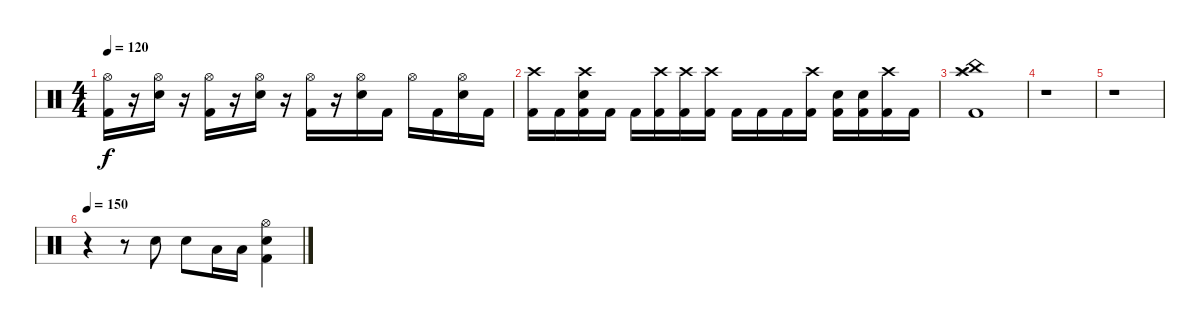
\track "" {instrument percussion}
\staff {score}
\articulation defaults
\ts (4 4)
\tempo 120
\clef neutral
\ks c
("Hi-Hat (open)" "Kick (hit) 2").16{dy f} r.16 ("Hi-Hat (open)" "Electric Snare (hit)").16 r.16 ("Hi-Hat (open)" "Kick (hit) 2").16 r.16 ("Hi-Hat (open)" "Electric Snare (hit)").16 r.16 ("Hi-Hat (open)" "Kick (hit) 2").16 r.16 ("Hi-Hat (open)" "Electric Snare (hit)").16 "Kick (hit) 2".16 "Hi-Hat (open)".16 "Kick (hit) 2".16 ("Hi-Hat (open)" "Electric Snare (hit)").16 "Kick (hit) 2".16 |
("Crash high (hit)" "Kick (hit) 2").16 "Kick (hit) 2".16 ("Crash high (hit)" "Electric Snare (hit)" "Kick (hit) 2").16 "Kick (hit) 2".16 "Kick (hit) 2".16 ("Crash high (hit)" "Kick (hit) 2").16 ("Crash high (hit)" "Kick (hit) 2").16 ("Crash high (hit)" "Kick (hit) 2").16 "Kick (hit) 2".16 "Kick (hit) 2".16 "Kick (hit) 2".16 ("Crash high (hit)" "Kick (hit) 2").16 ("Electric Snare (hit)" "Kick (hit) 2").16 ("Electric Snare (hit)" "Kick (hit) 2").16 ("Crash high (hit)" "Kick (hit) 2").16 "Kick (hit) 2".16 |
("Crash high (hit)" "Splash (hit)" "China (hit)" "Kick (hit) 2").1 |
r.1 |
r.1 |
\tempo 150
r.4 r.8 "Snare (hit) 2".8 "Snare (hit) 2".8 "Low Tom (hit)".16 "Low Tom (hit)".16 ("Hi-Hat (open)" "Snare (hit) 2" "Kick (hit) 2").4
